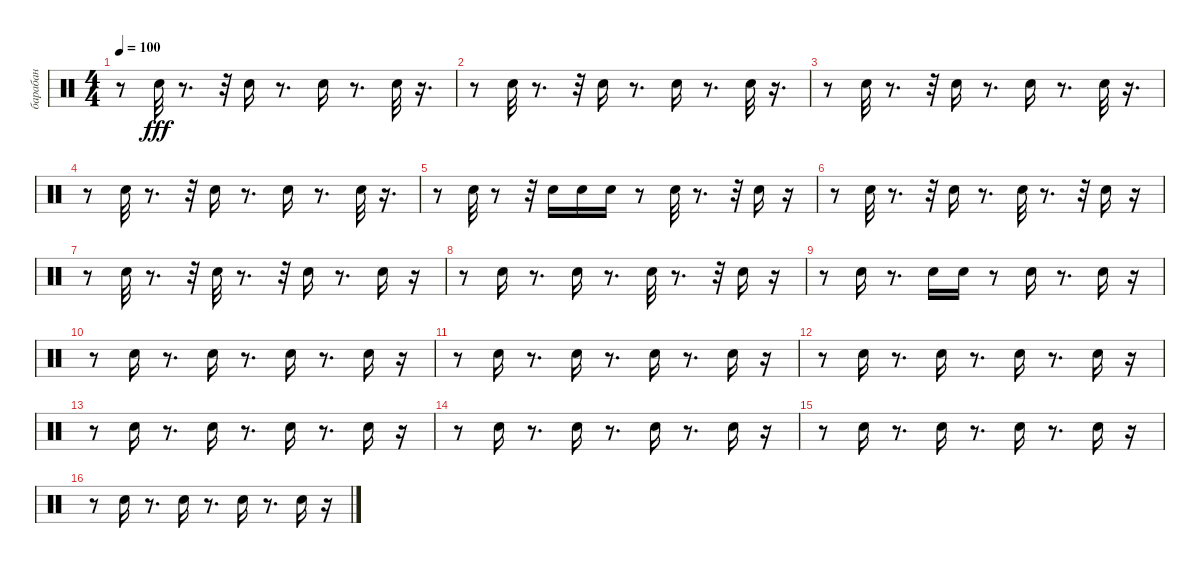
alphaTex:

\track ("барабан" "барабан") {instrument percussion}
\staff {score}
\articulation defaults
\ts (4 4)
\tempo 100
\clef neutral
\ks c
r.8{dy fff} "Snare (hit) 2".32 r.8{d} r.32 "Snare (hit) 2".16 r.8{d} "Snare (hit) 2".16 r.8{d} "Snare (hit) 2".32 r.16{d} |
r.8 "Snare (hit) 2".32 r.8{d} r.32 "Snare (hit) 2".16 r.8{d} "Snare (hit) 2".16 r.8{d} "Snare (hit) 2".32 r.16{d} |
r.8 "Snare (hit) 2".32 r.8{d} r.32 "Snare (hit) 2".16 r.8{d} "Snare (hit) 2".16 r.8{d} "Snare (hit) 2".32 r.16{d} |
r.8 "Snare (hit) 2".32 r.8{d} r.32 "Snare (hit) 2".16 r.8{d} "Snare (hit) 2".16 r.8{d} "Snare (hit) 2".32 r.16{d} |
r.8 "Snare (hit) 2".32 r.8 r.32 "Snare (hit) 2".16 "Snare (hit) 2".16 "Snare (hit) 2".16 r.8 "Snare (hit) 2".32 r.8{d} r.32 "Snare (hit) 2".16 r.16 |
r.8 "Snare (hit) 2".32 r.8{d} r.32 "Snare (hit) 2".16 r.8{d} "Snare (hit) 2".32 r.8{d} r.32 "Snare (hit) 2".16 r.16 |
r.8 "Snare (hit) 2".32 r.8{d} r.32 "Snare (hit) 2".32 r.8{d} r.32 "Snare (hit) 2".16 r.8{d} "Snare (hit) 2".16 r.16 |
r.8 "Snare (hit) 2".16 r.8{d} "Snare (hit) 2".16 r.8{d} "Snare (hit) 2".32 r.8{d} r.32 "Snare (hit) 2".16 r.16 |
r.8 "Snare (hit) 2".16 r.8{d} "Snare (hit) 2".16 "Snare (hit) 2".16 r.8 "Snare (hit) 2".16 r.8{d} "Snare (hit) 2".16 r.16 |
r.8 "Snare (hit) 2".16 r.8{d} "Snare (hit) 2".16 r.8{d} "Snare (hit) 2".16 r.8{d} "Snare (hit) 2".16 r.16 |
r.8 "Snare (hit) 2".16 r.8{d} "Snare (hit) 2".16 r.8{d} "Snare (hit) 2".16 r.8{d} "Snare (hit) 2".16 r.16 |
r.8 "Snare (hit) 2".16 r.8{d} "Snare (hit) 2".16 r.8{d} "Snare (hit) 2".16 r.8{d} "Snare (hit) 2".16 r.16 |
r.8 "Snare (hit) 2".16 r.8{d} "Snare (hit) 2".16 r.8{d} "Snare (hit) 2".16 r.8{d} "Snare (hit) 2".16 r.16 |
r.8 "Snare (hit) 2".16 r.8{d} "Snare (hit) 2".16 r.8{d} "Snare (hit) 2".16 r.8{d} "Snare (hit) 2".16 r.16 |
r.8 "Snare (hit) 2".16 r.8{d} "Snare (hit) 2".16 r.8{d} "Snare (hit) 2".16 r.8{d} "Snare (hit) 2".16 r.16 |
r.8 "Snare (hit) 2".16 r.8{d} "Snare (hit) 2".16 r.8{d} "Snare (hit) 2".16 r.8{d} "Snare (hit) 2".16 r.16
